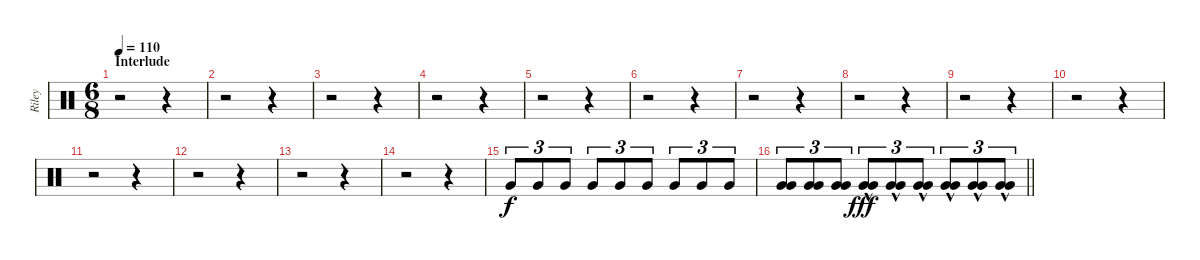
\track ("Riley" "Riley") {instrument percussion}
\staff {score}
\articulation defaults
\ts (6 8)
\section ("" "Interlude")
\tempo 110
\clef neutral
\ks c
r.2{dy f} r.4 |
r.2 r.4 |
r.2 r.4 |
r.2 r.4 |
r.2 r.4 |
r.2 r.4 |
r.2 r.4 |
r.2 r.4 |
r.2 r.4 |
r.2 r.4 |
r.2 r.4 |
r.2 r.4 |
r.2 r.4 |
r.2 r.4 |
"Very Low Tom (hit)".8{tu (3 2)} "Very Low Tom (hit)".8{tu (3 2)} "Very Low Tom (hit)".8{tu (3 2)} "Very Low Tom (hit)".8{tu (3 2)} "Very Low Tom (hit)".8{tu (3 2)} "Very Low Tom (hit)".8{tu (3 2)} "Very Low Tom (hit)".8{tu (3 2)} "Very Low Tom (hit)".8{tu (3 2)} "Very Low Tom (hit)".8{tu (3 2)} |
\barLineRight lightlight
("Very Low Tom (hit)" "Very Low Tom (hit)").8{tu (3 2)} ("Very Low Tom (hit)" "Very Low Tom (hit)").8{tu (3 2)} ("Very Low Tom (hit)" "Very Low Tom (hit)").8{tu (3 2)} ("Very Low Tom (hit)" "Very Low Tom (hit)"{hac}).8{tu (3 2) dy fff} ("Very Low Tom (hit)" "Very Low Tom (hit)"{hac}).8{tu (3 2)} ("Very Low Tom (hit)" "Very Low Tom (hit)"{hac}).8{tu (3 2)} ("Very Low Tom (hit)"{hac} "Very Low Tom (hit)"{hac}).8{tu (3 2)} ("Very Low Tom (hit)"{hac} "Very Low Tom (hit)"{hac}).8{tu (3 2)} ("Very Low Tom (hit)"{hac} "Very Low Tom (hit)"{hac}).8{tu (3 2)}
